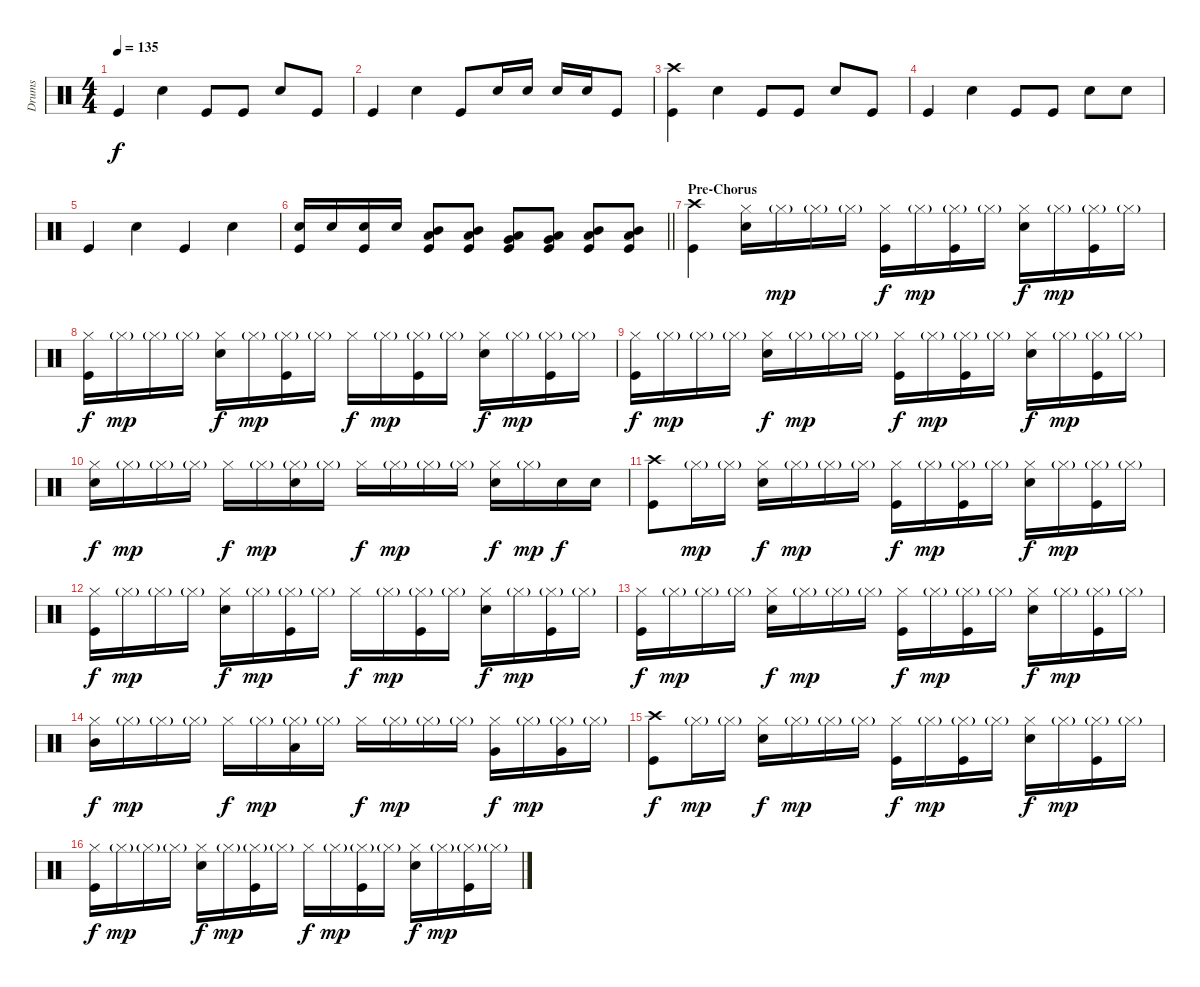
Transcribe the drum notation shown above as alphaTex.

\track ("Drums" "Drums") {instrument percussion}
\staff {score}
\articulation defaults
\ts (4 4)
\tempo 135
\clef neutral
\ks c "Kick (hit)".4{dy f} "Snare (hit) 2".4 "Kick (hit)".8 "Kick (hit)".8 "Snare (hit) 2".8 "Kick (hit)".8
|
"Kick (hit)".4 "Snare (hit) 2".4 "Kick (hit)".8 "Snare (hit) 2".16 "Snare (hit) 2".16 "Snare (hit) 2".16 "Snare (hit) 2".16 "Kick (hit)".8 |
("Crash high (hit)" "Kick (hit)").4 "Snare (hit) 2".4 "Kick (hit)".8 "Kick (hit)".8 "Snare (hit) 2".8 "Kick (hit)".8 |
"Kick (hit)".4 "Snare (hit) 2".4 "Kick (hit)".8 "Kick (hit)".8 "Snare (hit) 2".8 "Snare (hit) 2".8 |
"Kick (hit)".4 "Snare (hit) 2".4 "Kick (hit)".4 "Snare (hit) 2".4 |
\barLineRight lightlight
("Snare (hit) 2" "Kick (hit)").16 "Snare (hit) 2".16 ("Snare (hit) 2" "Kick (hit)").16 "Snare (hit) 2".16 ("Mid Tom (hit)" "Low Tom (hit)" "Kick (hit)").8 ("Mid Tom (hit)" "Low Tom (hit)" "Kick (hit)").8 ("Low Tom (hit)" "Very Low Tom (hit)" "Kick (hit)").8 ("Low Tom (hit)" "Very Low Tom (hit)" "Kick (hit)").8 ("Mid Tom (hit)" "Low Tom (hit)" "Kick (hit)").8 ("Mid Tom (hit)" "Low Tom (hit)" "Kick (hit)").8 |
\section ("" "Pre-Chorus")
("Crash high (hit)" "Kick (hit)").4 ("Hi-Hat (closed)" "Snare (hit) 2").16 "Hi-Hat (closed)"{g}.16{dy mp} "Hi-Hat (closed)"{g}.16 "Hi-Hat (closed)"{g}.16 ("Hi-Hat (closed)" "Kick (hit)").16{dy f} "Hi-Hat (closed)"{g}.16{dy mp} ("Hi-Hat (closed)"{g} "Kick (hit)").16 "Hi-Hat (closed)"{g}.16 ("Hi-Hat (closed)" "Snare (hit) 2").16{dy f} "Hi-Hat (closed)"{g}.16{dy mp} ("Hi-Hat (closed)"{g} "Kick (hit)").16 "Hi-Hat (closed)"{g}.16 |
("Hi-Hat (closed)" "Kick (hit)").16{dy f} "Hi-Hat (closed)"{g}.16{dy mp} "Hi-Hat (closed)"{g}.16 "Hi-Hat (closed)"{g}.16 ("Hi-Hat (closed)" "Snare (hit) 2").16{dy f} "Hi-Hat (closed)"{g}.16{dy mp} ("Hi-Hat (closed)"{g} "Kick (hit)").16 "Hi-Hat (closed)"{g}.16 "Hi-Hat (closed)".16{dy f} "Hi-Hat (closed)"{g}.16{dy mp} ("Hi-Hat (closed)"{g} "Kick (hit)").16 "Hi-Hat (closed)"{g}.16 ("Hi-Hat (closed)" "Snare (hit) 2").16{dy f} "Hi-Hat (closed)"{g}.16{dy mp} ("Hi-Hat (closed)"{g} "Kick (hit)").16 "Hi-Hat (closed)"{g}.16 |
("Hi-Hat (closed)" "Kick (hit)").16{dy f} "Hi-Hat (closed)"{g}.16{dy mp} "Hi-Hat (closed)"{g}.16 "Hi-Hat (closed)"{g}.16 ("Hi-Hat (closed)" "Snare (hit) 2").16{dy f} "Hi-Hat (closed)"{g}.16{dy mp} "Hi-Hat (closed)"{g}.16 "Hi-Hat (closed)"{g}.16 ("Hi-Hat (closed)" "Kick (hit)").16{dy f} "Hi-Hat (closed)"{g}.16{dy mp} ("Hi-Hat (closed)"{g} "Kick (hit)").16 "Hi-Hat (closed)"{g}.16 ("Hi-Hat (closed)" "Snare (hit) 2").16{dy f} "Hi-Hat (closed)"{g}.16{dy mp} ("Hi-Hat (closed)"{g} "Kick (hit)").16 "Hi-Hat (closed)"{g}.16 |
("Hi-Hat (closed)" "Snare (hit) 2").16{dy f} "Hi-Hat (closed)"{g}.16{dy mp} "Hi-Hat (closed)"{g}.16 "Hi-Hat (closed)"{g}.16 "Hi-Hat (closed)".16{dy f} "Hi-Hat (closed)"{g}.16{dy mp} ("Hi-Hat (closed)"{g} "Snare (hit) 2").16 "Hi-Hat (closed)"{g}.16 "Hi-Hat (closed)".16{dy f} "Hi-Hat (closed)"{g}.16{dy mp} "Hi-Hat (closed)"{g}.16 "Hi-Hat (closed)"{g}.16 ("Hi-Hat (closed)" "Snare (hit) 2").16{dy f} "Hi-Hat (closed)"{g}.16{dy mp} "Snare (hit) 2".16{dy f} "Snare (hit) 2".16 |
("Crash high (hit)" "Kick (hit)").8 "Hi-Hat (closed)"{g}.16{dy mp} "Hi-Hat (closed)"{g}.16 ("Hi-Hat (closed)" "Snare (hit) 2").16{dy f} "Hi-Hat (closed)"{g}.16{dy mp} "Hi-Hat (closed)"{g}.16 "Hi-Hat (closed)"{g}.16 ("Hi-Hat (closed)" "Kick (hit)").16{dy f} "Hi-Hat (closed)"{g}.16{dy mp} ("Hi-Hat (closed)"{g} "Kick (hit)").16 "Hi-Hat (closed)"{g}.16 ("Hi-Hat (closed)" "Snare (hit) 2").16{dy f} "Hi-Hat (closed)"{g}.16{dy mp} ("Hi-Hat (closed)"{g} "Kick (hit)").16 "Hi-Hat (closed)"{g}.16 |
("Hi-Hat (closed)" "Kick (hit)").16{dy f} "Hi-Hat (closed)"{g}.16{dy mp} "Hi-Hat (closed)"{g}.16 "Hi-Hat (closed)"{g}.16 ("Hi-Hat (closed)" "Snare (hit) 2").16{dy f} "Hi-Hat (closed)"{g}.16{dy mp} ("Hi-Hat (closed)"{g} "Kick (hit)").16 "Hi-Hat (closed)"{g}.16 "Hi-Hat (closed)".16{dy f} "Hi-Hat (closed)"{g}.16{dy mp} ("Hi-Hat (closed)"{g} "Kick (hit)").16 "Hi-Hat (closed)"{g}.16 ("Hi-Hat (closed)" "Snare (hit) 2").16{dy f} "Hi-Hat (closed)"{g}.16{dy mp} ("Hi-Hat (closed)"{g} "Kick (hit)").16 "Hi-Hat (closed)"{g}.16 |
("Hi-Hat (closed)" "Kick (hit)").16{dy f} "Hi-Hat (closed)"{g}.16{dy mp} "Hi-Hat (closed)"{g}.16 "Hi-Hat (closed)"{g}.16 ("Hi-Hat (closed)" "Snare (hit) 2").16{dy f} "Hi-Hat (closed)"{g}.16{dy mp} "Hi-Hat (closed)"{g}.16 "Hi-Hat (closed)"{g}.16 ("Hi-Hat (closed)" "Kick (hit)").16{dy f} "Hi-Hat (closed)"{g}.16{dy mp} ("Hi-Hat (closed)"{g} "Kick (hit)").16 "Hi-Hat (closed)"{g}.16 ("Hi-Hat (closed)" "Snare (hit) 2").16{dy f} "Hi-Hat (closed)"{g}.16{dy mp} ("Hi-Hat (closed)"{g} "Kick (hit)").16 "Hi-Hat (closed)"{g}.16 |
("Hi-Hat (closed)" "Mid Tom (hit)").16{dy f} "Hi-Hat (closed)"{g}.16{dy mp} "Hi-Hat (closed)"{g}.16 "Hi-Hat (closed)"{g}.16 "Hi-Hat (closed)".16{dy f} "Hi-Hat (closed)"{g}.16{dy mp} ("Hi-Hat (closed)"{g} "Low Tom (hit)").16 "Hi-Hat (closed)"{g}.16 "Hi-Hat (closed)".16{dy f} "Hi-Hat (closed)"{g}.16{dy mp} "Hi-Hat (closed)"{g}.16 "Hi-Hat (closed)"{g}.16 ("Hi-Hat (closed)" "Very Low Tom (hit)").16{dy f} "Hi-Hat (closed)"{g}.16{dy mp} ("Hi-Hat (closed)"{g} "Very Low Tom (hit)").16 "Hi-Hat (closed)"{g}.16 |
("Crash high (hit)" "Kick (hit)").8{dy f} "Hi-Hat (closed)"{g}.16{dy mp} "Hi-Hat (closed)"{g}.16 ("Hi-Hat (closed)" "Snare (hit) 2").16{dy f} "Hi-Hat (closed)"{g}.16{dy mp} "Hi-Hat (closed)"{g}.16 "Hi-Hat (closed)"{g}.16 ("Hi-Hat (closed)" "Kick (hit)").16{dy f} "Hi-Hat (closed)"{g}.16{dy mp} ("Hi-Hat (closed)"{g} "Kick (hit)").16 "Hi-Hat (closed)"{g}.16 ("Hi-Hat (closed)" "Snare (hit) 2").16{dy f} "Hi-Hat (closed)"{g}.16{dy mp} ("Hi-Hat (closed)"{g} "Kick (hit)").16 "Hi-Hat (closed)"{g}.16 |
("Hi-Hat (closed)" "Kick (hit)").16{dy f} "Hi-Hat (closed)"{g}.16{dy mp} "Hi-Hat (closed)"{g}.16 "Hi-Hat (closed)"{g}.16 ("Hi-Hat (closed)" "Snare (hit) 2").16{dy f} "Hi-Hat (closed)"{g}.16{dy mp} ("Hi-Hat (closed)"{g} "Kick (hit)").16 "Hi-Hat (closed)"{g}.16 "Hi-Hat (closed)".16{dy f} "Hi-Hat (closed)"{g}.16{dy mp} ("Hi-Hat (closed)"{g} "Kick (hit)").16 "Hi-Hat (closed)"{g}.16 ("Hi-Hat (closed)" "Snare (hit) 2").16{dy f} "Hi-Hat (closed)"{g}.16{dy mp} ("Hi-Hat (closed)"{g} "Kick (hit)").16 "Hi-Hat (closed)"{g}.16
